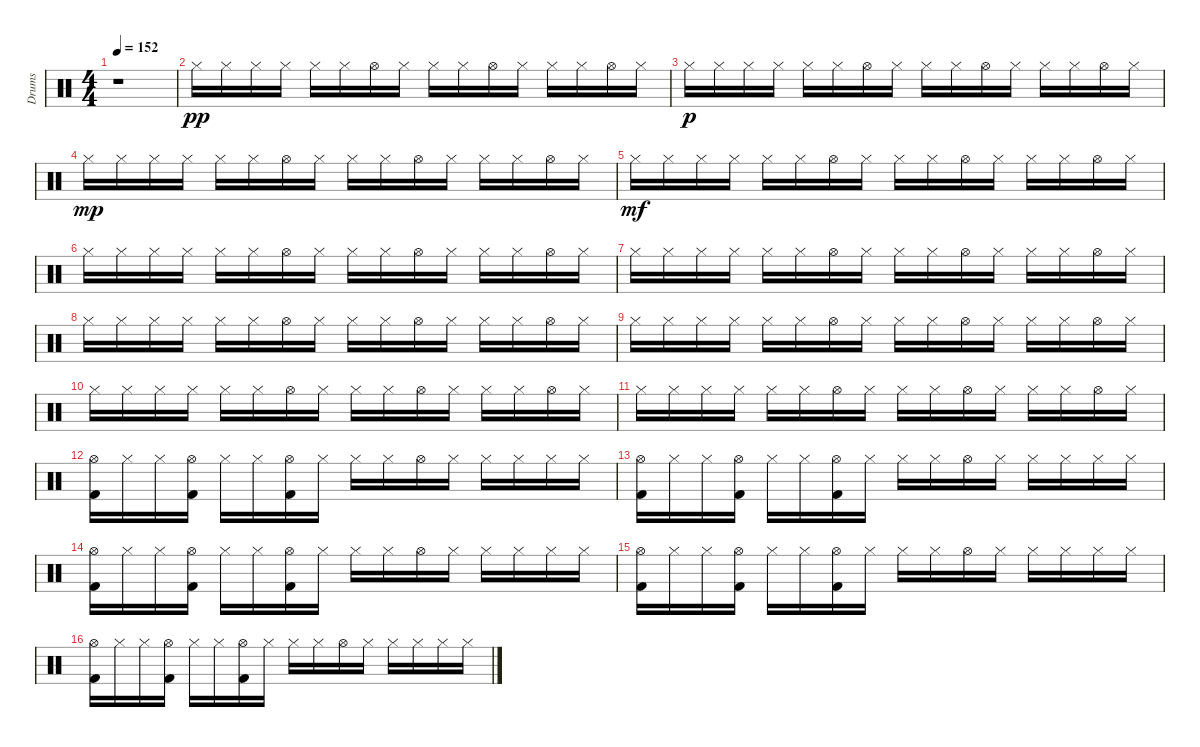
\track ("Drums" "Drums") {instrument percussion}
\staff {score}
\articulation defaults
\ts (4 4)
\tempo 152
\clef neutral
\ks c
r.1{dy pp} |
"Hi-Hat (closed)".16 "Hi-Hat (closed)".16 "Hi-Hat (closed)".16 "Hi-Hat (closed)".16 "Hi-Hat (closed)".16 "Hi-Hat (closed)".16 "Hi-Hat (open)".16 "Hi-Hat (closed)".16 "Hi-Hat (closed)".16 "Hi-Hat (closed)".16 "Hi-Hat (open)".16 "Hi-Hat (closed)".16 "Hi-Hat (closed)".16 "Hi-Hat (closed)".16 "Hi-Hat (open)".16 "Hi-Hat (closed)".16 |
"Hi-Hat (closed)".16{dy p} "Hi-Hat (closed)".16 "Hi-Hat (closed)".16 "Hi-Hat (closed)".16 "Hi-Hat (closed)".16 "Hi-Hat (closed)".16 "Hi-Hat (open)".16 "Hi-Hat (closed)".16 "Hi-Hat (closed)".16 "Hi-Hat (closed)".16 "Hi-Hat (open)".16 "Hi-Hat (closed)".16 "Hi-Hat (closed)".16 "Hi-Hat (closed)".16 "Hi-Hat (open)".16 "Hi-Hat (closed)".16 |
"Hi-Hat (closed)".16{dy mp} "Hi-Hat (closed)".16 "Hi-Hat (closed)".16 "Hi-Hat (closed)".16 "Hi-Hat (closed)".16 "Hi-Hat (closed)".16 "Hi-Hat (open)".16 "Hi-Hat (closed)".16 "Hi-Hat (closed)".16 "Hi-Hat (closed)".16 "Hi-Hat (open)".16 "Hi-Hat (closed)".16 "Hi-Hat (closed)".16 "Hi-Hat (closed)".16 "Hi-Hat (open)".16 "Hi-Hat (closed)".16 |
"Hi-Hat (closed)".16{dy mf} "Hi-Hat (closed)".16 "Hi-Hat (closed)".16 "Hi-Hat (closed)".16 "Hi-Hat (closed)".16 "Hi-Hat (closed)".16 "Hi-Hat (open)".16 "Hi-Hat (closed)".16 "Hi-Hat (closed)".16 "Hi-Hat (closed)".16 "Hi-Hat (open)".16 "Hi-Hat (closed)".16 "Hi-Hat (closed)".16 "Hi-Hat (closed)".16 "Hi-Hat (open)".16 "Hi-Hat (closed)".16 |
"Hi-Hat (closed)".16 "Hi-Hat (closed)".16 "Hi-Hat (closed)".16 "Hi-Hat (closed)".16 "Hi-Hat (closed)".16 "Hi-Hat (closed)".16 "Hi-Hat (open)".16 "Hi-Hat (closed)".16 "Hi-Hat (closed)".16 "Hi-Hat (closed)".16 "Hi-Hat (open)".16 "Hi-Hat (closed)".16 "Hi-Hat (closed)".16 "Hi-Hat (closed)".16 "Hi-Hat (open)".16 "Hi-Hat (closed)".16 |
"Hi-Hat (closed)".16 "Hi-Hat (closed)".16 "Hi-Hat (closed)".16 "Hi-Hat (closed)".16 "Hi-Hat (closed)".16 "Hi-Hat (closed)".16 "Hi-Hat (open)".16 "Hi-Hat (closed)".16 "Hi-Hat (closed)".16 "Hi-Hat (closed)".16 "Hi-Hat (open)".16 "Hi-Hat (closed)".16 "Hi-Hat (closed)".16 "Hi-Hat (closed)".16 "Hi-Hat (open)".16 "Hi-Hat (closed)".16 |
"Hi-Hat (closed)".16 "Hi-Hat (closed)".16 "Hi-Hat (closed)".16 "Hi-Hat (closed)".16 "Hi-Hat (closed)".16 "Hi-Hat (closed)".16 "Hi-Hat (open)".16 "Hi-Hat (closed)".16 "Hi-Hat (closed)".16 "Hi-Hat (closed)".16 "Hi-Hat (open)".16 "Hi-Hat (closed)".16 "Hi-Hat (closed)".16 "Hi-Hat (closed)".16 "Hi-Hat (open)".16 "Hi-Hat (closed)".16 |
"Hi-Hat (closed)".16 "Hi-Hat (closed)".16 "Hi-Hat (closed)".16 "Hi-Hat (closed)".16 "Hi-Hat (closed)".16 "Hi-Hat (closed)".16 "Hi-Hat (open)".16 "Hi-Hat (closed)".16 "Hi-Hat (closed)".16 "Hi-Hat (closed)".16 "Hi-Hat (open)".16 "Hi-Hat (closed)".16 "Hi-Hat (closed)".16 "Hi-Hat (closed)".16 "Hi-Hat (open)".16 "Hi-Hat (closed)".16 |
"Hi-Hat (closed)".16 "Hi-Hat (closed)".16 "Hi-Hat (closed)".16 "Hi-Hat (closed)".16 "Hi-Hat (closed)".16 "Hi-Hat (closed)".16 "Hi-Hat (open)".16 "Hi-Hat (closed)".16 "Hi-Hat (closed)".16 "Hi-Hat (closed)".16 "Hi-Hat (open)".16 "Hi-Hat (closed)".16 "Hi-Hat (closed)".16 "Hi-Hat (closed)".16 "Hi-Hat (open)".16 "Hi-Hat (closed)".16 |
"Hi-Hat (closed)".16 "Hi-Hat (closed)".16 "Hi-Hat (closed)".16 "Hi-Hat (closed)".16 "Hi-Hat (closed)".16 "Hi-Hat (closed)".16 "Hi-Hat (open)".16 "Hi-Hat (closed)".16 "Hi-Hat (closed)".16 "Hi-Hat (closed)".16 "Hi-Hat (open)".16 "Hi-Hat (closed)".16 "Hi-Hat (closed)".16 "Hi-Hat (closed)".16 "Hi-Hat (open)".16 "Hi-Hat (closed)".16 |
("Hi-Hat (open)" "Kick (hit) 2").16 "Hi-Hat (closed)".16 "Hi-Hat (closed)".16 ("Hi-Hat (open)" "Kick (hit) 2").16 "Hi-Hat (closed)".16 "Hi-Hat (closed)".16 ("Hi-Hat (open)" "Kick (hit) 2").16 "Hi-Hat (closed)".16 "Hi-Hat (closed)".16 "Hi-Hat (closed)".16 "Hi-Hat (open)".16 "Hi-Hat (closed)".16 "Hi-Hat (closed)".16 "Hi-Hat (closed)".16 "Hi-Hat (closed)".16 "Hi-Hat (closed)".16 |
("Hi-Hat (open)" "Kick (hit) 2").16 "Hi-Hat (closed)".16 "Hi-Hat (closed)".16 ("Hi-Hat (open)" "Kick (hit) 2").16 "Hi-Hat (closed)".16 "Hi-Hat (closed)".16 ("Hi-Hat (open)" "Kick (hit) 2").16 "Hi-Hat (closed)".16 "Hi-Hat (closed)".16 "Hi-Hat (closed)".16 "Hi-Hat (open)".16 "Hi-Hat (closed)".16 "Hi-Hat (closed)".16 "Hi-Hat (closed)".16 "Hi-Hat (closed)".16 "Hi-Hat (closed)".16 |
("Hi-Hat (open)" "Kick (hit) 2").16 "Hi-Hat (closed)".16 "Hi-Hat (closed)".16 ("Hi-Hat (open)" "Kick (hit) 2").16 "Hi-Hat (closed)".16 "Hi-Hat (closed)".16 ("Hi-Hat (open)" "Kick (hit) 2").16 "Hi-Hat (closed)".16 "Hi-Hat (closed)".16 "Hi-Hat (closed)".16 "Hi-Hat (open)".16 "Hi-Hat (closed)".16 "Hi-Hat (closed)".16 "Hi-Hat (closed)".16 "Hi-Hat (closed)".16 "Hi-Hat (closed)".16 |
("Hi-Hat (open)" "Kick (hit) 2").16 "Hi-Hat (closed)".16 "Hi-Hat (closed)".16 ("Hi-Hat (open)" "Kick (hit) 2").16 "Hi-Hat (closed)".16 "Hi-Hat (closed)".16 ("Hi-Hat (open)" "Kick (hit) 2").16 "Hi-Hat (closed)".16 "Hi-Hat (closed)".16 "Hi-Hat (closed)".16 "Hi-Hat (open)".16 "Hi-Hat (closed)".16 "Hi-Hat (closed)".16 "Hi-Hat (closed)".16 "Hi-Hat (closed)".16 "Hi-Hat (closed)".16 |
("Hi-Hat (open)" "Kick (hit) 2").16 "Hi-Hat (closed)".16 "Hi-Hat (closed)".16 ("Hi-Hat (open)" "Kick (hit) 2").16 "Hi-Hat (closed)".16 "Hi-Hat (closed)".16 ("Hi-Hat (open)" "Kick (hit) 2").16 "Hi-Hat (closed)".16 "Hi-Hat (closed)".16 "Hi-Hat (closed)".16 "Hi-Hat (open)".16 "Hi-Hat (closed)".16 "Hi-Hat (closed)".16 "Hi-Hat (closed)".16 "Hi-Hat (closed)".16 "Hi-Hat (closed)".16
